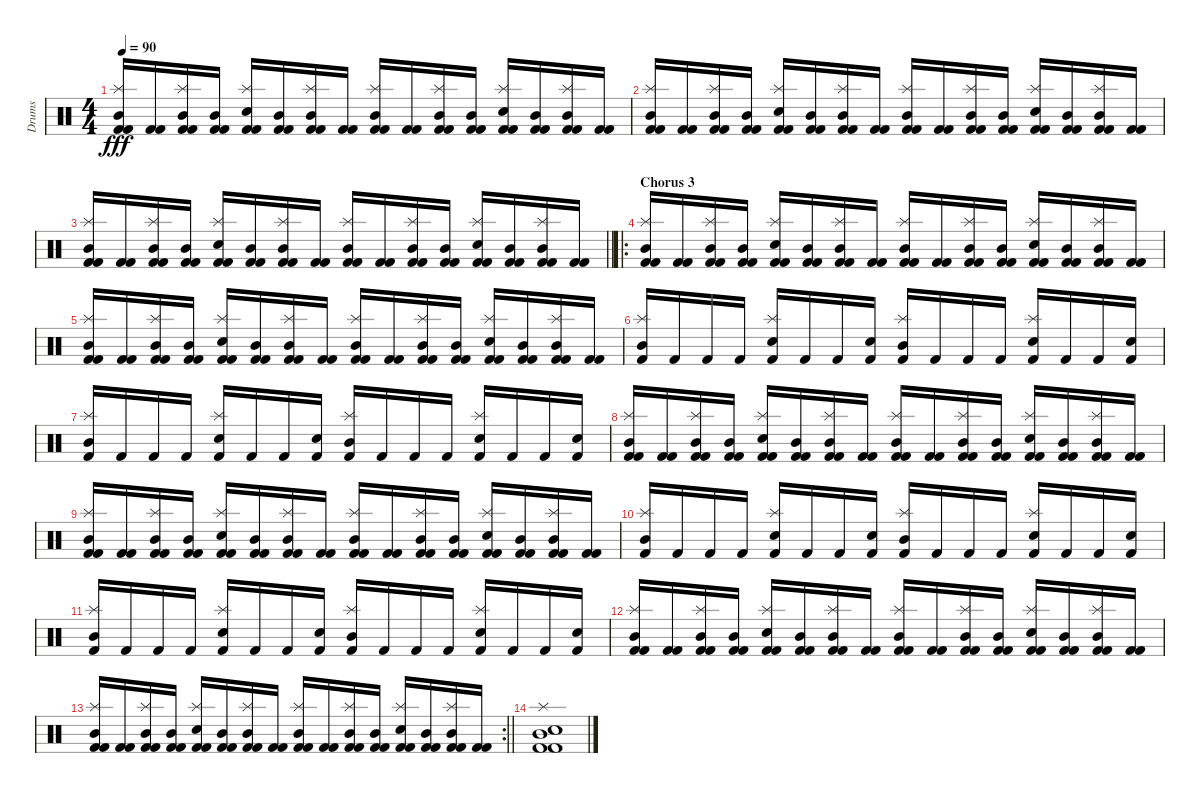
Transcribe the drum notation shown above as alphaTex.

\track ("Drums" "Drums") {instrument percussion}
\staff {score}
\articulation defaults
\ts (4 4)
\tempo 90
\clef neutral
\ks c
("Kick (hit) 2" "Splash (hit)" "Mid Tom (hit)" "Kick (hit) 2").16{dy fff} ("Kick (hit) 2" "Kick (hit) 2").16 ("Kick (hit) 2" "Splash (hit)" "Mid Tom (hit)" "Kick (hit) 2").16 ("Kick (hit) 2" "Mid Tom (hit)" "Kick (hit) 2").16 ("Kick (hit) 2" "Splash (hit)" "Electric Snare (hit)" "Kick (hit) 2").16 ("Kick (hit) 2" "Mid Tom (hit)" "Kick (hit) 2").16 ("Kick (hit) 2" "Splash (hit)" "Mid Tom (hit)" "Kick (hit) 2").16 ("Kick (hit) 2" "Kick (hit) 2").16 ("Kick (hit) 2" "Splash (hit)" "Mid Tom (hit)" "Kick (hit) 2").16 ("Kick (hit) 2" "Kick (hit) 2").16 ("Kick (hit) 2" "Splash (hit)" "Mid Tom (hit)" "Kick (hit) 2").16 ("Kick (hit) 2" "Mid Tom (hit)" "Kick (hit) 2").16 ("Kick (hit) 2" "Splash (hit)" "Electric Snare (hit)" "Kick (hit) 2").16 ("Kick (hit) 2" "Mid Tom (hit)" "Kick (hit) 2").16 ("Kick (hit) 2" "Splash (hit)" "Mid Tom (hit)" "Kick (hit) 2").16 ("Kick (hit) 2" "Kick (hit) 2").16 |
("Kick (hit) 2" "Splash (hit)" "Mid Tom (hit)" "Kick (hit) 2").16 ("Kick (hit) 2" "Kick (hit) 2").16 ("Kick (hit) 2" "Splash (hit)" "Mid Tom (hit)" "Kick (hit) 2").16 ("Kick (hit) 2" "Mid Tom (hit)" "Kick (hit) 2").16 ("Kick (hit) 2" "Splash (hit)" "Electric Snare (hit)" "Kick (hit) 2").16 ("Kick (hit) 2" "Mid Tom (hit)" "Kick (hit) 2").16 ("Kick (hit) 2" "Splash (hit)" "Mid Tom (hit)" "Kick (hit) 2").16 ("Kick (hit) 2" "Kick (hit) 2").16 ("Kick (hit) 2" "Splash (hit)" "Mid Tom (hit)" "Kick (hit) 2").16 ("Kick (hit) 2" "Kick (hit) 2").16 ("Kick (hit) 2" "Splash (hit)" "Mid Tom (hit)" "Kick (hit) 2").16 ("Kick (hit) 2" "Mid Tom (hit)" "Kick (hit) 2").16 ("Kick (hit) 2" "Splash (hit)" "Electric Snare (hit)" "Kick (hit) 2").16 ("Kick (hit) 2" "Mid Tom (hit)" "Kick (hit) 2").16 ("Kick (hit) 2" "Splash (hit)" "Mid Tom (hit)" "Kick (hit) 2").16 ("Kick (hit) 2" "Kick (hit) 2").16 |
\barLineRight lightlight
("Kick (hit) 2" "Splash (hit)" "Mid Tom (hit)" "Kick (hit) 2").16 ("Kick (hit) 2" "Kick (hit) 2").16 ("Kick (hit) 2" "Splash (hit)" "Mid Tom (hit)" "Kick (hit) 2").16 ("Kick (hit) 2" "Mid Tom (hit)" "Kick (hit) 2").16 ("Kick (hit) 2" "Splash (hit)" "Electric Snare (hit)" "Kick (hit) 2").16 ("Kick (hit) 2" "Mid Tom (hit)" "Kick (hit) 2").16 ("Kick (hit) 2" "Splash (hit)" "Mid Tom (hit)" "Kick (hit) 2").16 ("Kick (hit) 2" "Kick (hit) 2").16 ("Kick (hit) 2" "Splash (hit)" "Mid Tom (hit)" "Kick (hit) 2").16 ("Kick (hit) 2" "Kick (hit) 2").16 ("Kick (hit) 2" "Splash (hit)" "Mid Tom (hit)" "Kick (hit) 2").16 ("Kick (hit) 2" "Mid Tom (hit)" "Kick (hit) 2").16 ("Kick (hit) 2" "Splash (hit)" "Electric Snare (hit)" "Kick (hit) 2").16 ("Kick (hit) 2" "Mid Tom (hit)" "Kick (hit) 2").16 ("Kick (hit) 2" "Splash (hit)" "Mid Tom (hit)" "Kick (hit) 2").16 ("Kick (hit) 2" "Kick (hit) 2").16 |
\ro
\section ("" "Chorus 3")
("Kick (hit) 2" "Splash (hit)" "Mid Tom (hit)" "Kick (hit) 2").16 ("Kick (hit) 2" "Kick (hit) 2").16 ("Kick (hit) 2" "Splash (hit)" "Mid Tom (hit)" "Kick (hit) 2").16 ("Kick (hit) 2" "Mid Tom (hit)" "Kick (hit) 2").16 ("Kick (hit) 2" "Splash (hit)" "Electric Snare (hit)" "Kick (hit) 2").16 ("Kick (hit) 2" "Mid Tom (hit)" "Kick (hit) 2").16 ("Kick (hit) 2" "Splash (hit)" "Mid Tom (hit)" "Kick (hit) 2").16 ("Kick (hit) 2" "Kick (hit) 2").16 ("Kick (hit) 2" "Splash (hit)" "Mid Tom (hit)" "Kick (hit) 2").16 ("Kick (hit) 2" "Kick (hit) 2").16 ("Kick (hit) 2" "Splash (hit)" "Mid Tom (hit)" "Kick (hit) 2").16 ("Kick (hit) 2" "Mid Tom (hit)" "Kick (hit) 2").16 ("Kick (hit) 2" "Splash (hit)" "Electric Snare (hit)" "Kick (hit) 2").16 ("Kick (hit) 2" "Mid Tom (hit)" "Kick (hit) 2").16 ("Kick (hit) 2" "Splash (hit)" "Mid Tom (hit)" "Kick (hit) 2").16 ("Kick (hit) 2" "Kick (hit) 2").16 |
("Kick (hit) 2" "Splash (hit)" "Mid Tom (hit)" "Kick (hit) 2").16 ("Kick (hit) 2" "Kick (hit) 2").16 ("Kick (hit) 2" "Splash (hit)" "Mid Tom (hit)" "Kick (hit) 2").16 ("Kick (hit) 2" "Mid Tom (hit)" "Kick (hit) 2").16 ("Kick (hit) 2" "Splash (hit)" "Electric Snare (hit)" "Kick (hit) 2").16 ("Kick (hit) 2" "Mid Tom (hit)" "Kick (hit) 2").16 ("Kick (hit) 2" "Splash (hit)" "Mid Tom (hit)" "Kick (hit) 2").16 ("Kick (hit) 2" "Kick (hit) 2").16 ("Kick (hit) 2" "Splash (hit)" "Mid Tom (hit)" "Kick (hit) 2").16 ("Kick (hit) 2" "Kick (hit) 2").16 ("Kick (hit) 2" "Splash (hit)" "Mid Tom (hit)" "Kick (hit) 2").16 ("Kick (hit) 2" "Mid Tom (hit)" "Kick (hit) 2").16 ("Kick (hit) 2" "Splash (hit)" "Electric Snare (hit)" "Kick (hit) 2").16 ("Kick (hit) 2" "Mid Tom (hit)" "Kick (hit) 2").16 ("Kick (hit) 2" "Splash (hit)" "Mid Tom (hit)" "Kick (hit) 2").16 ("Kick (hit) 2" "Kick (hit) 2").16 |
("Splash (hit)" "Mid Tom (hit)" "Kick (hit) 2").16 "Kick (hit) 2".16 "Kick (hit) 2".16 "Kick (hit) 2".16 ("Splash (hit)" "Electric Snare (hit)" "Kick (hit) 2").16 "Kick (hit) 2".16 "Kick (hit) 2".16 ("Electric Snare (hit)" "Kick (hit) 2").16 ("Splash (hit)" "Mid Tom (hit)" "Kick (hit) 2").16 "Kick (hit) 2".16 "Kick (hit) 2".16 "Kick (hit) 2".16 ("Splash (hit)" "Electric Snare (hit)" "Kick (hit) 2").16 "Kick (hit) 2".16 "Kick (hit) 2".16 ("Electric Snare (hit)" "Kick (hit) 2").16 |
("Splash (hit)" "Mid Tom (hit)" "Kick (hit) 2").16 "Kick (hit) 2".16 "Kick (hit) 2".16 "Kick (hit) 2".16 ("Splash (hit)" "Electric Snare (hit)" "Kick (hit) 2").16 "Kick (hit) 2".16 "Kick (hit) 2".16 ("Electric Snare (hit)" "Kick (hit) 2").16 ("Splash (hit)" "Mid Tom (hit)" "Kick (hit) 2").16 "Kick (hit) 2".16 "Kick (hit) 2".16 "Kick (hit) 2".16 ("Splash (hit)" "Electric Snare (hit)" "Kick (hit) 2").16 "Kick (hit) 2".16 "Kick (hit) 2".16 ("Electric Snare (hit)" "Kick (hit) 2").16 |
("Kick (hit) 2" "Splash (hit)" "Mid Tom (hit)" "Kick (hit) 2").16 ("Kick (hit) 2" "Kick (hit) 2").16 ("Kick (hit) 2" "Splash (hit)" "Mid Tom (hit)" "Kick (hit) 2").16 ("Kick (hit) 2" "Mid Tom (hit)" "Kick (hit) 2").16 ("Kick (hit) 2" "Splash (hit)" "Electric Snare (hit)" "Kick (hit) 2").16 ("Kick (hit) 2" "Mid Tom (hit)" "Kick (hit) 2").16 ("Kick (hit) 2" "Splash (hit)" "Mid Tom (hit)" "Kick (hit) 2").16 ("Kick (hit) 2" "Kick (hit) 2").16 ("Kick (hit) 2" "Splash (hit)" "Mid Tom (hit)" "Kick (hit) 2").16 ("Kick (hit) 2" "Kick (hit) 2").16 ("Kick (hit) 2" "Splash (hit)" "Mid Tom (hit)" "Kick (hit) 2").16 ("Kick (hit) 2" "Mid Tom (hit)" "Kick (hit) 2").16 ("Kick (hit) 2" "Splash (hit)" "Electric Snare (hit)" "Kick (hit) 2").16 ("Kick (hit) 2" "Mid Tom (hit)" "Kick (hit) 2").16 ("Kick (hit) 2" "Splash (hit)" "Mid Tom (hit)" "Kick (hit) 2").16 ("Kick (hit) 2" "Kick (hit) 2").16 |
("Kick (hit) 2" "Splash (hit)" "Mid Tom (hit)" "Kick (hit) 2").16 ("Kick (hit) 2" "Kick (hit) 2").16 ("Kick (hit) 2" "Splash (hit)" "Mid Tom (hit)" "Kick (hit) 2").16 ("Kick (hit) 2" "Mid Tom (hit)" "Kick (hit) 2").16 ("Kick (hit) 2" "Splash (hit)" "Electric Snare (hit)" "Kick (hit) 2").16 ("Kick (hit) 2" "Mid Tom (hit)" "Kick (hit) 2").16 ("Kick (hit) 2" "Splash (hit)" "Mid Tom (hit)" "Kick (hit) 2").16 ("Kick (hit) 2" "Kick (hit) 2").16 ("Kick (hit) 2" "Splash (hit)" "Mid Tom (hit)" "Kick (hit) 2").16 ("Kick (hit) 2" "Kick (hit) 2").16 ("Kick (hit) 2" "Splash (hit)" "Mid Tom (hit)" "Kick (hit) 2").16 ("Kick (hit) 2" "Mid Tom (hit)" "Kick (hit) 2").16 ("Kick (hit) 2" "Splash (hit)" "Electric Snare (hit)" "Kick (hit) 2").16 ("Kick (hit) 2" "Mid Tom (hit)" "Kick (hit) 2").16 ("Kick (hit) 2" "Splash (hit)" "Mid Tom (hit)" "Kick (hit) 2").16 ("Kick (hit) 2" "Kick (hit) 2").16 |
("Splash (hit)" "Mid Tom (hit)" "Kick (hit) 2").16 "Kick (hit) 2".16 "Kick (hit) 2".16 "Kick (hit) 2".16 ("Splash (hit)" "Electric Snare (hit)" "Kick (hit) 2").16 "Kick (hit) 2".16 "Kick (hit) 2".16 ("Electric Snare (hit)" "Kick (hit) 2").16 ("Splash (hit)" "Mid Tom (hit)" "Kick (hit) 2").16 "Kick (hit) 2".16 "Kick (hit) 2".16 "Kick (hit) 2".16 ("Splash (hit)" "Electric Snare (hit)" "Kick (hit) 2").16 "Kick (hit) 2".16 "Kick (hit) 2".16 ("Electric Snare (hit)" "Kick (hit) 2").16 |
("Splash (hit)" "Mid Tom (hit)" "Kick (hit) 2").16 "Kick (hit) 2".16 "Kick (hit) 2".16 "Kick (hit) 2".16 ("Splash (hit)" "Electric Snare (hit)" "Kick (hit) 2").16 "Kick (hit) 2".16 "Kick (hit) 2".16 ("Electric Snare (hit)" "Kick (hit) 2").16 ("Splash (hit)" "Mid Tom (hit)" "Kick (hit) 2").16 "Kick (hit) 2".16 "Kick (hit) 2".16 "Kick (hit) 2".16 ("Splash (hit)" "Electric Snare (hit)" "Kick (hit) 2").16 "Kick (hit) 2".16 "Kick (hit) 2".16 ("Electric Snare (hit)" "Kick (hit) 2").16 |
("Kick (hit) 2" "Splash (hit)" "Mid Tom (hit)" "Kick (hit) 2").16 ("Kick (hit) 2" "Kick (hit) 2").16 ("Kick (hit) 2" "Splash (hit)" "Mid Tom (hit)" "Kick (hit) 2").16 ("Kick (hit) 2" "Mid Tom (hit)" "Kick (hit) 2").16 ("Kick (hit) 2" "Splash (hit)" "Electric Snare (hit)" "Kick (hit) 2").16 ("Kick (hit) 2" "Mid Tom (hit)" "Kick (hit) 2").16 ("Kick (hit) 2" "Splash (hit)" "Mid Tom (hit)" "Kick (hit) 2").16 ("Kick (hit) 2" "Kick (hit) 2").16 ("Kick (hit) 2" "Splash (hit)" "Mid Tom (hit)" "Kick (hit) 2").16 ("Kick (hit) 2" "Kick (hit) 2").16 ("Kick (hit) 2" "Splash (hit)" "Mid Tom (hit)" "Kick (hit) 2").16 ("Kick (hit) 2" "Mid Tom (hit)" "Kick (hit) 2").16 ("Kick (hit) 2" "Splash (hit)" "Electric Snare (hit)" "Kick (hit) 2").16 ("Kick (hit) 2" "Mid Tom (hit)" "Kick (hit) 2").16 ("Kick (hit) 2" "Splash (hit)" "Mid Tom (hit)" "Kick (hit) 2").16 ("Kick (hit) 2" "Kick (hit) 2").16 |
\rc 2
\barLineRight lightlight
("Kick (hit) 2" "Splash (hit)" "Mid Tom (hit)" "Kick (hit) 2").16 ("Kick (hit) 2" "Kick (hit) 2").16 ("Kick (hit) 2" "Splash (hit)" "Mid Tom (hit)" "Kick (hit) 2").16 ("Kick (hit) 2" "Mid Tom (hit)" "Kick (hit) 2").16 ("Kick (hit) 2" "Splash (hit)" "Electric Snare (hit)" "Kick (hit) 2").16 ("Kick (hit) 2" "Mid Tom (hit)" "Kick (hit) 2").16 ("Kick (hit) 2" "Splash (hit)" "Mid Tom (hit)" "Kick (hit) 2").16 ("Kick (hit) 2" "Kick (hit) 2").16 ("Kick (hit) 2" "Splash (hit)" "Mid Tom (hit)" "Kick (hit) 2").16 ("Kick (hit) 2" "Kick (hit) 2").16 ("Kick (hit) 2" "Splash (hit)" "Mid Tom (hit)" "Kick (hit) 2").16 ("Kick (hit) 2" "Mid Tom (hit)" "Kick (hit) 2").16 ("Kick (hit) 2" "Splash (hit)" "Electric Snare (hit)" "Kick (hit) 2").16 ("Kick (hit) 2" "Mid Tom (hit)" "Kick (hit) 2").16 ("Kick (hit) 2" "Splash (hit)" "Mid Tom (hit)" "Kick (hit) 2").16 ("Kick (hit) 2" "Kick (hit) 2").16 |
("Splash (hit)" "Mid Tom (hit)" "Electric Snare (hit)" "Kick (hit) 2" "Kick (hit) 2").1
